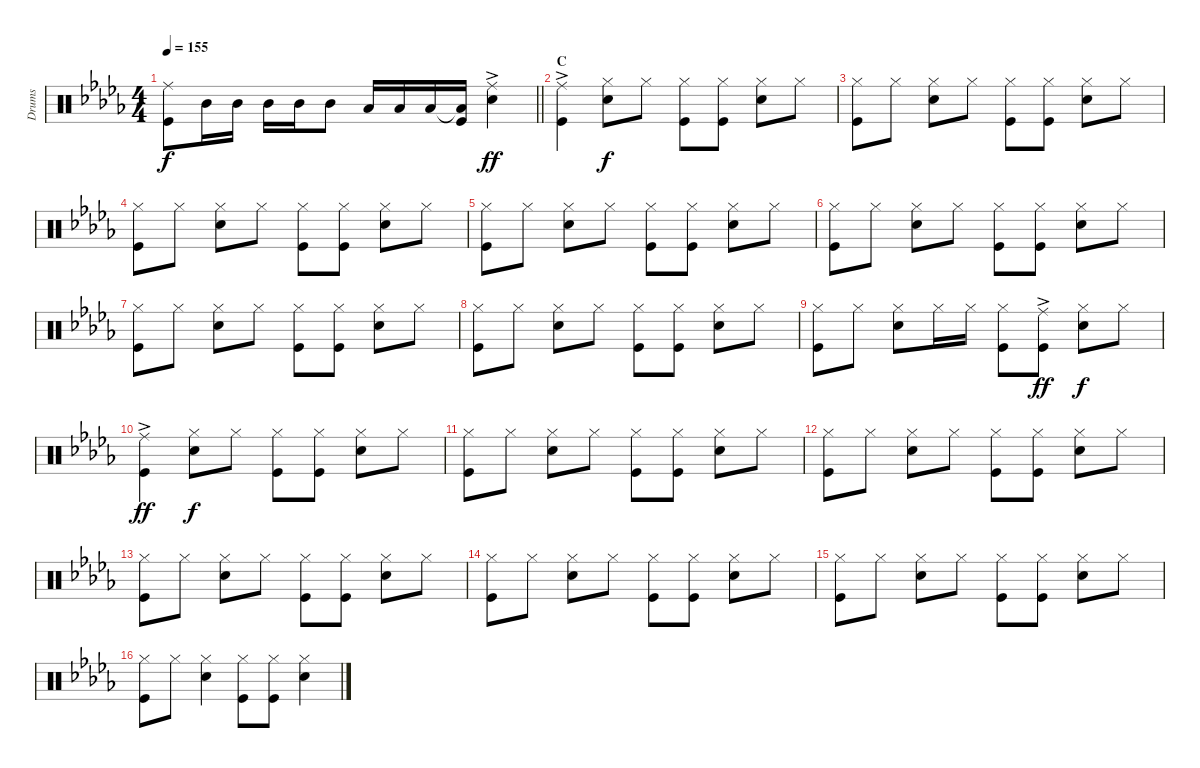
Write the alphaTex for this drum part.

\track ("Drums" "Drums") {instrument percussion}
\staff {score}
\articulation defaults
\ts (4 4)
\tempo 155
\clef neutral
\barLineRight lightlight
\ks db
("Ride (middle)" "Kick (hit)").8{dy f} "Mid Tom (hit)".16 "Mid Tom (hit)".16 "Mid Tom (hit)".16 "Mid Tom (hit)".16 "Mid Tom (hit)".8 "Low Tom (hit)".16 "Low Tom (hit)".16 "Low Tom (hit)".16 ("Low Tom (hit)"{t} "Kick (hit)").16 ("Ride (middle)"{ac} "Snare (hit) 2"{ac}).4{dy ff} |
\section ("" "C")
("Ride (middle)"{ac} "Kick (hit)"{ac}).4 ("Hi-Hat (closed)" "Snare (hit) 2").8{dy f} "Hi-Hat (closed)".8 ("Hi-Hat (closed)" "Kick (hit)").8 ("Hi-Hat (closed)" "Kick (hit)").8 ("Hi-Hat (closed)" "Snare (hit) 2").8 "Hi-Hat (closed)".8 |
("Hi-Hat (closed)" "Kick (hit)").8 "Hi-Hat (closed)".8 ("Hi-Hat (closed)" "Snare (hit) 2").8 "Hi-Hat (closed)".8 ("Hi-Hat (closed)" "Kick (hit)").8 ("Hi-Hat (closed)" "Kick (hit)").8 ("Hi-Hat (closed)" "Snare (hit) 2").8 "Hi-Hat (closed)".8 |
("Hi-Hat (closed)" "Kick (hit)").8 "Hi-Hat (closed)".8 ("Hi-Hat (closed)" "Snare (hit) 2").8 "Hi-Hat (closed)".8 ("Hi-Hat (closed)" "Kick (hit)").8 ("Hi-Hat (closed)" "Kick (hit)").8 ("Hi-Hat (closed)" "Snare (hit) 2").8 "Hi-Hat (closed)".8 |
("Hi-Hat (closed)" "Kick (hit)").8 "Hi-Hat (closed)".8 ("Hi-Hat (closed)" "Snare (hit) 2").8 "Hi-Hat (closed)".8 ("Hi-Hat (closed)" "Kick (hit)").8 ("Hi-Hat (closed)" "Kick (hit)").8 ("Hi-Hat (closed)" "Snare (hit) 2").8 "Hi-Hat (closed)".8 |
("Hi-Hat (closed)" "Kick (hit)").8 "Hi-Hat (closed)".8 ("Hi-Hat (closed)" "Snare (hit) 2").8 "Hi-Hat (closed)".8 ("Hi-Hat (closed)" "Kick (hit)").8 ("Hi-Hat (closed)" "Kick (hit)").8 ("Hi-Hat (closed)" "Snare (hit) 2").8 "Hi-Hat (closed)".8 |
("Hi-Hat (closed)" "Kick (hit)").8 "Hi-Hat (closed)".8 ("Hi-Hat (closed)" "Snare (hit) 2").8 "Hi-Hat (closed)".8 ("Hi-Hat (closed)" "Kick (hit)").8 ("Hi-Hat (closed)" "Kick (hit)").8 ("Hi-Hat (closed)" "Snare (hit) 2").8 "Hi-Hat (closed)".8 |
("Hi-Hat (closed)" "Kick (hit)").8 "Hi-Hat (closed)".8 ("Hi-Hat (closed)" "Snare (hit) 2").8 "Hi-Hat (closed)".8 ("Hi-Hat (closed)" "Kick (hit)").8 ("Hi-Hat (closed)" "Kick (hit)").8 ("Hi-Hat (closed)" "Snare (hit) 2").8 "Hi-Hat (closed)".8 |
("Hi-Hat (closed)" "Kick (hit)").8 "Hi-Hat (closed)".8 ("Hi-Hat (closed)" "Snare (hit) 2").8 "Hi-Hat (closed)".16 "Hi-Hat (closed)".16 ("Hi-Hat (closed)" "Kick (hit)").8 ("Ride (middle)"{ac} "Kick (hit)"{ac}).8{dy ff} ("Hi-Hat (closed)" "Snare (hit) 2").8{dy f} "Hi-Hat (closed)".8 |
("Ride (middle)"{ac} "Kick (hit)"{ac}).4{dy ff} ("Hi-Hat (closed)" "Snare (hit) 2").8{dy f} "Hi-Hat (closed)".8 ("Hi-Hat (closed)" "Kick (hit)").8 ("Hi-Hat (closed)" "Kick (hit)").8 ("Hi-Hat (closed)" "Snare (hit) 2").8 "Hi-Hat (closed)".8 |
("Hi-Hat (closed)" "Kick (hit)").8 "Hi-Hat (closed)".8 ("Hi-Hat (closed)" "Snare (hit) 2").8 "Hi-Hat (closed)".8 ("Hi-Hat (closed)" "Kick (hit)").8 ("Hi-Hat (closed)" "Kick (hit)").8 ("Hi-Hat (closed)" "Snare (hit) 2").8 "Hi-Hat (closed)".8 |
("Hi-Hat (closed)" "Kick (hit)").8 "Hi-Hat (closed)".8 ("Hi-Hat (closed)" "Snare (hit) 2").8 "Hi-Hat (closed)".8 ("Hi-Hat (closed)" "Kick (hit)").8 ("Hi-Hat (closed)" "Kick (hit)").8 ("Hi-Hat (closed)" "Snare (hit) 2").8 "Hi-Hat (closed)".8 |
("Hi-Hat (closed)" "Kick (hit)").8 "Hi-Hat (closed)".8 ("Hi-Hat (closed)" "Snare (hit) 2").8 "Hi-Hat (closed)".8 ("Hi-Hat (closed)" "Kick (hit)").8 ("Hi-Hat (closed)" "Kick (hit)").8 ("Hi-Hat (closed)" "Snare (hit) 2").8 "Hi-Hat (closed)".8 |
("Hi-Hat (closed)" "Kick (hit)").8 "Hi-Hat (closed)".8 ("Hi-Hat (closed)" "Snare (hit) 2").8 "Hi-Hat (closed)".8 ("Hi-Hat (closed)" "Kick (hit)").8 ("Hi-Hat (closed)" "Kick (hit)").8 ("Hi-Hat (closed)" "Snare (hit) 2").8 "Hi-Hat (closed)".8 |
("Hi-Hat (closed)" "Kick (hit)").8 "Hi-Hat (closed)".8 ("Hi-Hat (closed)" "Snare (hit) 2").8 "Hi-Hat (closed)".8 ("Hi-Hat (closed)" "Kick (hit)").8 ("Hi-Hat (closed)" "Kick (hit)").8 ("Hi-Hat (closed)" "Snare (hit) 2").8 "Hi-Hat (closed)".8 |
("Hi-Hat (closed)" "Kick (hit)").8 "Hi-Hat (closed)".8 ("Hi-Hat (closed)" "Snare (hit) 2").4 ("Hi-Hat (closed)" "Kick (hit)").8 ("Hi-Hat (closed)" "Kick (hit)").8 ("Hi-Hat (closed)" "Snare (hit) 2").4
